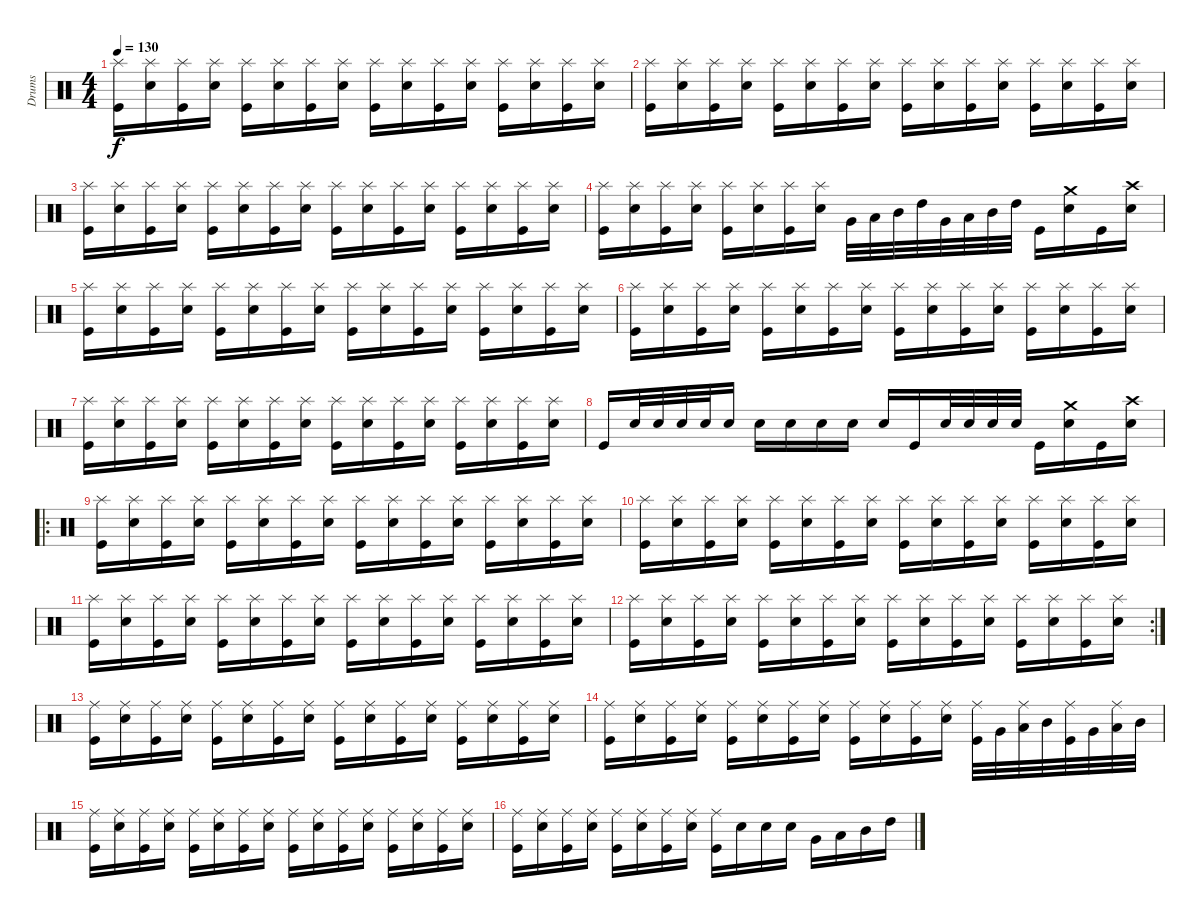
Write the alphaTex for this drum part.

\track ("Drums" "Drums") {instrument percussion}
\staff {score}
\articulation defaults
\ts (4 4)
\tempo 130
\clef neutral
\ks c
("Kick (hit)" "Splash (hit)").16{dy f} ("Electric Snare (hit)" "Splash (hit)").16 ("Kick (hit)" "Splash (hit)").16 ("Electric Snare (hit)" "Splash (hit)").16 ("Kick (hit)" "Splash (hit)").16 ("Electric Snare (hit)" "Splash (hit)").16 ("Kick (hit)" "Splash (hit)").16 ("Electric Snare (hit)" "Splash (hit)").16 ("Kick (hit)" "Splash (hit)").16 ("Electric Snare (hit)" "Splash (hit)").16 ("Kick (hit)" "Splash (hit)").16 ("Electric Snare (hit)" "Splash (hit)").16 ("Kick (hit)" "Splash (hit)").16 ("Electric Snare (hit)" "Splash (hit)").16 ("Kick (hit)" "Splash (hit)").16 ("Electric Snare (hit)" "Splash (hit)").16 |
("Kick (hit)" "Splash (hit)").16 ("Electric Snare (hit)" "Splash (hit)").16 ("Kick (hit)" "Splash (hit)").16 ("Electric Snare (hit)" "Splash (hit)").16 ("Kick (hit)" "Splash (hit)").16 ("Electric Snare (hit)" "Splash (hit)").16 ("Kick (hit)" "Splash (hit)").16 ("Electric Snare (hit)" "Splash (hit)").16 ("Kick (hit)" "Splash (hit)").16 ("Electric Snare (hit)" "Splash (hit)").16 ("Kick (hit)" "Splash (hit)").16 ("Electric Snare (hit)" "Splash (hit)").16 ("Kick (hit)" "Splash (hit)").16 ("Electric Snare (hit)" "Splash (hit)").16 ("Kick (hit)" "Splash (hit)").16 ("Electric Snare (hit)" "Splash (hit)").16 |
("Kick (hit)" "Splash (hit)").16 ("Electric Snare (hit)" "Splash (hit)").16 ("Kick (hit)" "Splash (hit)").16 ("Electric Snare (hit)" "Splash (hit)").16 ("Kick (hit)" "Splash (hit)").16 ("Electric Snare (hit)" "Splash (hit)").16 ("Kick (hit)" "Splash (hit)").16 ("Electric Snare (hit)" "Splash (hit)").16 ("Kick (hit)" "Splash (hit)").16 ("Electric Snare (hit)" "Splash (hit)").16 ("Kick (hit)" "Splash (hit)").16 ("Electric Snare (hit)" "Splash (hit)").16 ("Kick (hit)" "Splash (hit)").16 ("Electric Snare (hit)" "Splash (hit)").16 ("Kick (hit)" "Splash (hit)").16 ("Electric Snare (hit)" "Splash (hit)").16 |
("Kick (hit)" "Splash (hit)").16 ("Electric Snare (hit)" "Splash (hit)").16 ("Kick (hit)" "Splash (hit)").16 ("Electric Snare (hit)" "Splash (hit)").16 ("Kick (hit)" "Splash (hit)").16 ("Electric Snare (hit)" "Splash (hit)").16 ("Kick (hit)" "Splash (hit)").16 ("Electric Snare (hit)" "Splash (hit)").16 "Very Low Tom (hit)".32 "Low Tom (hit)".32 "Mid Tom (hit)".32 "High Tom (hit)".32 "Very Low Tom (hit)".32 "Low Tom (hit)".32 "Mid Tom (hit)".32 "High Tom (hit)".32 "Kick (hit)".16 ("Electric Snare (hit)" "Crash medium (hit)").16 "Kick (hit)".16 ("Electric Snare (hit)" "Crash high (hit)").16 |
("Kick (hit)" "Splash (hit)").16 ("Electric Snare (hit)" "Splash (hit)").16 ("Kick (hit)" "Splash (hit)").16 ("Electric Snare (hit)" "Splash (hit)").16 ("Kick (hit)" "Splash (hit)").16 ("Electric Snare (hit)" "Splash (hit)").16 ("Kick (hit)" "Splash (hit)").16 ("Electric Snare (hit)" "Splash (hit)").16 ("Kick (hit)" "Splash (hit)").16 ("Electric Snare (hit)" "Splash (hit)").16 ("Kick (hit)" "Splash (hit)").16 ("Electric Snare (hit)" "Splash (hit)").16 ("Kick (hit)" "Splash (hit)").16 ("Electric Snare (hit)" "Splash (hit)").16 ("Kick (hit)" "Splash (hit)").16 ("Electric Snare (hit)" "Splash (hit)").16 |
("Kick (hit)" "Splash (hit)").16 ("Electric Snare (hit)" "Splash (hit)").16 ("Kick (hit)" "Splash (hit)").16 ("Electric Snare (hit)" "Splash (hit)").16 ("Kick (hit)" "Splash (hit)").16 ("Electric Snare (hit)" "Splash (hit)").16 ("Kick (hit)" "Splash (hit)").16 ("Electric Snare (hit)" "Splash (hit)").16 ("Kick (hit)" "Splash (hit)").16 ("Electric Snare (hit)" "Splash (hit)").16 ("Kick (hit)" "Splash (hit)").16 ("Electric Snare (hit)" "Splash (hit)").16 ("Kick (hit)" "Splash (hit)").16 ("Electric Snare (hit)" "Splash (hit)").16 ("Kick (hit)" "Splash (hit)").16 ("Electric Snare (hit)" "Splash (hit)").16 |
("Kick (hit)" "Splash (hit)").16 ("Electric Snare (hit)" "Splash (hit)").16 ("Kick (hit)" "Splash (hit)").16 ("Electric Snare (hit)" "Splash (hit)").16 ("Kick (hit)" "Splash (hit)").16 ("Electric Snare (hit)" "Splash (hit)").16 ("Kick (hit)" "Splash (hit)").16 ("Electric Snare (hit)" "Splash (hit)").16 ("Kick (hit)" "Splash (hit)").16 ("Electric Snare (hit)" "Splash (hit)").16 ("Kick (hit)" "Splash (hit)").16 ("Electric Snare (hit)" "Splash (hit)").16 ("Kick (hit)" "Splash (hit)").16 ("Electric Snare (hit)" "Splash (hit)").16 ("Kick (hit)" "Splash (hit)").16 ("Electric Snare (hit)" "Splash (hit)").16 |
"Kick (hit)".16 "Electric Snare (hit)".32 "Electric Snare (hit)".32 "Electric Snare (hit)".32 "Electric Snare (hit)".32 "Electric Snare (hit)".16 "Electric Snare (hit)".16 "Electric Snare (hit)".16 "Electric Snare (hit)".16 "Electric Snare (hit)".16 "Electric Snare (hit)".16 "Kick (hit)".16 "Electric Snare (hit)".32 "Electric Snare (hit)".32 "Electric Snare (hit)".32 "Electric Snare (hit)".32 "Kick (hit)".16 ("Electric Snare (hit)" "Crash medium (hit)").16 "Kick (hit)".16 ("Electric Snare (hit)" "Crash high (hit)").16 |
\ro
("Kick (hit)" "Splash (hit)").16 ("Electric Snare (hit)" "Splash (hit)").16 ("Kick (hit)" "Splash (hit)").16 ("Electric Snare (hit)" "Splash (hit)").16 ("Kick (hit)" "Splash (hit)").16 ("Electric Snare (hit)" "Splash (hit)").16 ("Kick (hit)" "Splash (hit)").16 ("Electric Snare (hit)" "Splash (hit)").16 ("Kick (hit)" "Splash (hit)").16 ("Electric Snare (hit)" "Splash (hit)").16 ("Kick (hit)" "Splash (hit)").16 ("Electric Snare (hit)" "Splash (hit)").16 ("Kick (hit)" "Splash (hit)").16 ("Electric Snare (hit)" "Splash (hit)").16 ("Kick (hit)" "Splash (hit)").16 ("Electric Snare (hit)" "Splash (hit)").16 |
("Kick (hit)" "Splash (hit)").16 ("Electric Snare (hit)" "Splash (hit)").16 ("Kick (hit)" "Splash (hit)").16 ("Electric Snare (hit)" "Splash (hit)").16 ("Kick (hit)" "Splash (hit)").16 ("Electric Snare (hit)" "Splash (hit)").16 ("Kick (hit)" "Splash (hit)").16 ("Electric Snare (hit)" "Splash (hit)").16 ("Kick (hit)" "Splash (hit)").16 ("Electric Snare (hit)" "Splash (hit)").16 ("Kick (hit)" "Splash (hit)").16 ("Electric Snare (hit)" "Splash (hit)").16 ("Kick (hit)" "Splash (hit)").16 ("Electric Snare (hit)" "Splash (hit)").16 ("Kick (hit)" "Splash (hit)").16 ("Electric Snare (hit)" "Splash (hit)").16 |
("Kick (hit)" "Splash (hit)").16 ("Electric Snare (hit)" "Splash (hit)").16 ("Kick (hit)" "Splash (hit)").16 ("Electric Snare (hit)" "Splash (hit)").16 ("Kick (hit)" "Splash (hit)").16 ("Electric Snare (hit)" "Splash (hit)").16 ("Kick (hit)" "Splash (hit)").16 ("Electric Snare (hit)" "Splash (hit)").16 ("Kick (hit)" "Splash (hit)").16 ("Electric Snare (hit)" "Splash (hit)").16 ("Kick (hit)" "Splash (hit)").16 ("Electric Snare (hit)" "Splash (hit)").16 ("Kick (hit)" "Splash (hit)").16 ("Electric Snare (hit)" "Splash (hit)").16 ("Kick (hit)" "Splash (hit)").16 ("Electric Snare (hit)" "Splash (hit)").16 |
\rc 2
("Kick (hit)" "Splash (hit)").16 ("Electric Snare (hit)" "Splash (hit)").16 ("Kick (hit)" "Splash (hit)").16 ("Electric Snare (hit)" "Splash (hit)").16 ("Kick (hit)" "Splash (hit)").16 ("Electric Snare (hit)" "Splash (hit)").16 ("Kick (hit)" "Splash (hit)").16 ("Electric Snare (hit)" "Splash (hit)").16 ("Kick (hit)" "Splash (hit)").16 ("Electric Snare (hit)" "Splash (hit)").16 ("Kick (hit)" "Splash (hit)").16 ("Electric Snare (hit)" "Splash (hit)").16 ("Kick (hit)" "Splash (hit)").16 ("Electric Snare (hit)" "Splash (hit)").16 ("Kick (hit)" "Splash (hit)").16 ("Electric Snare (hit)" "Splash (hit)").16 |
("Kick (hit)" "Ride (middle)").16 ("Electric Snare (hit)" "Ride (middle)").16 ("Kick (hit)" "Ride (middle)").16 ("Electric Snare (hit)" "Ride (middle)").16 ("Kick (hit)" "Ride (middle)").16 ("Electric Snare (hit)" "Ride (middle)").16 ("Kick (hit)" "Ride (middle)").16 ("Electric Snare (hit)" "Ride (middle)").16 ("Kick (hit)" "Ride (middle)").16 ("Electric Snare (hit)" "Ride (middle)").16 ("Kick (hit)" "Ride (middle)").16 ("Electric Snare (hit)" "Ride (middle)").16 ("Kick (hit)" "Ride (middle)").16 ("Electric Snare (hit)" "Ride (middle)").16 ("Kick (hit)" "Ride (middle)").16 ("Electric Snare (hit)" "Ride (middle)").16 |
("Kick (hit)" "Ride (middle)").16 ("Electric Snare (hit)" "Ride (middle)").16 ("Kick (hit)" "Ride (middle)").16 ("Electric Snare (hit)" "Ride (middle)").16 ("Kick (hit)" "Ride (middle)").16 ("Electric Snare (hit)" "Ride (middle)").16 ("Kick (hit)" "Ride (middle)").16 ("Electric Snare (hit)" "Ride (middle)").16 ("Kick (hit)" "Ride (middle)").16 ("Electric Snare (hit)" "Ride (middle)").16 ("Kick (hit)" "Ride (middle)").16 ("Electric Snare (hit)" "Ride (middle)").16 ("Kick (hit)" "Ride (middle)").32 "Very Low Tom (hit)".32 ("Low Tom (hit)" "Ride (middle)").32 "Mid Tom (hit)".32 ("Kick (hit)" "Ride (middle)").32 "Very Low Tom (hit)".32 ("Low Tom (hit)" "Ride (middle)").32 "Mid Tom (hit)".32 |
("Kick (hit)" "Ride (middle)").16 ("Electric Snare (hit)" "Ride (middle)").16 ("Kick (hit)" "Ride (middle)").16 ("Electric Snare (hit)" "Ride (middle)").16 ("Kick (hit)" "Ride (middle)").16 ("Electric Snare (hit)" "Ride (middle)").16 ("Kick (hit)" "Ride (middle)").16 ("Electric Snare (hit)" "Ride (middle)").16 ("Kick (hit)" "Ride (middle)").16 ("Electric Snare (hit)" "Ride (middle)").16 ("Kick (hit)" "Ride (middle)").16 ("Electric Snare (hit)" "Ride (middle)").16 ("Kick (hit)" "Ride (middle)").16 ("Electric Snare (hit)" "Ride (middle)").16 ("Kick (hit)" "Ride (middle)").16 ("Electric Snare (hit)" "Ride (middle)").16 |
("Kick (hit)" "Ride (middle)").16 ("Electric Snare (hit)" "Ride (middle)").16 ("Kick (hit)" "Ride (middle)").16 ("Electric Snare (hit)" "Ride (middle)").16 ("Kick (hit)" "Ride (middle)").16 ("Electric Snare (hit)" "Ride (middle)").16 ("Kick (hit)" "Ride (middle)").16 ("Electric Snare (hit)" "Ride (middle)").16 ("Kick (hit)" "Ride (middle)").16 "Electric Snare (hit)".16 "Electric Snare (hit)".16 "Electric Snare (hit)".16 "Very Low Tom (hit)".16 "Low Tom (hit)".16 "Mid Tom (hit)".16 "High Tom (hit)".16
